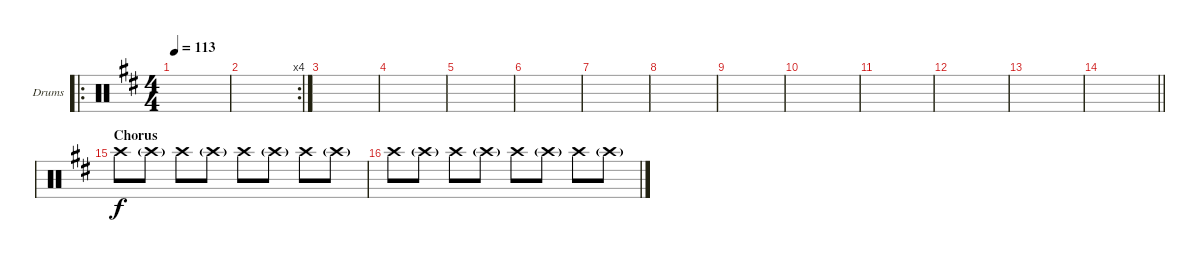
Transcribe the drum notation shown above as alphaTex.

\bracketExtendMode groupsimilarinstruments
\firstSystemTrackNameOrientation horizontal
\otherSystemsTrackNameOrientation horizontal
\track ("Crash" "Drums") {instrument percussion}
\staff {score}
\articulation defaults
\ro
\ts (4 4)
\beaming (8 2 2 2 2)
\tempo 113
\clef neutral
\scale
0.528
\ks d
|
\rc 4
\scale
0.248 |
\scale
0.224 |
\scale
0.333333 |
\scale
0.333333 |
\scale
0.333333 |
\scale
0.333333 |
\scale
0.333333 |
\scale
0.333333 |
\scale
0.333333 |
\scale
0.333333 |
\scale
0.333333 |
\scale
0.333333 |
\scale
0.333333
\barLineRight lightlight
|
\section ("" "Chorus")
\scale
0.333333 "Crash high (hit)".8 "Crash high (hit)"{g}.8 "Crash high (hit)".8 "Crash high (hit)"{g}.8 "Crash high (hit)".8 "Crash high (hit)"{g}.8 "Crash high (hit)".8 "Crash high (hit)"{g}.8 |
\scale
0.333333 "Crash high (hit)".8 "Crash high (hit)"{g}.8 "Crash high (hit)".8 "Crash high (hit)"{g}.8 "Crash high (hit)".8 "Crash high (hit)"{g}.8 "Crash high (hit)".8 "Crash high (hit)"{g}.8
